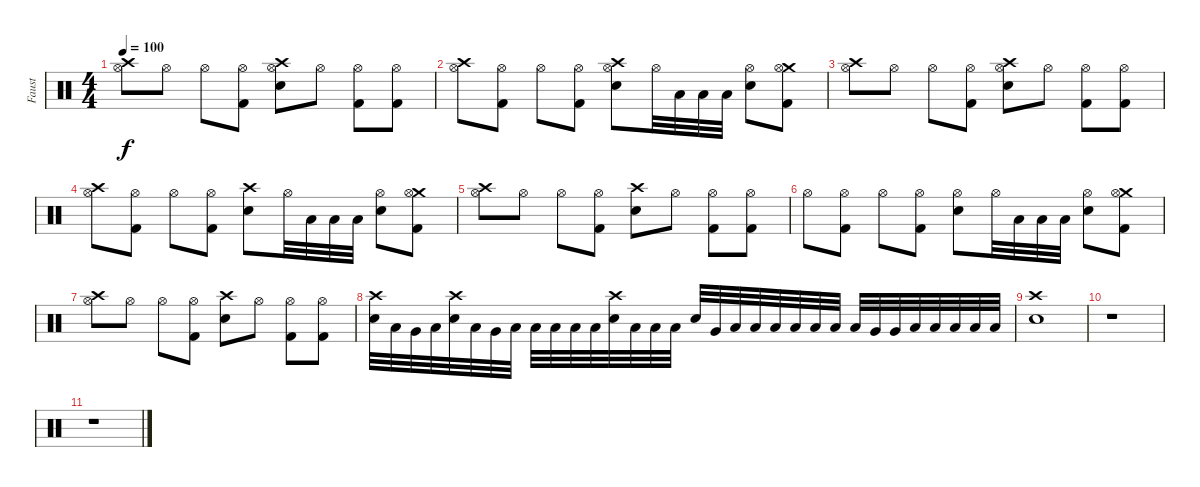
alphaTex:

\track ("Faust" "Faust") {instrument percussion}
\staff {score}
\articulation defaults
\ts (4 4)
\tempo 100
\clef neutral
\ks c
("Crash high (hit)" "Hi-Hat (open)").8{dy f} "Hi-Hat (open)".8 "Hi-Hat (open)".8 ("Hi-Hat (open)" "Kick (hit) 2").8 ("Crash high (hit)" "Snare (hit) 2" "Hi-Hat (open)").8 "Hi-Hat (open)".8 ("Hi-Hat (open)" "Kick (hit) 2").8 ("Hi-Hat (open)" "Kick (hit) 2").8 |
("Crash high (hit)" "Hi-Hat (open)").8 ("Hi-Hat (open)" "Kick (hit) 2").8 "Hi-Hat (open)".8 ("Hi-Hat (open)" "Kick (hit) 2").8 ("Crash high (hit)" "Snare (hit) 2" "Hi-Hat (open)").8 "Hi-Hat (open)".32 "Low Tom (hit)".32 "Low Tom (hit)".32 "Low Tom (hit)".32 ("Snare (hit) 2" "Hi-Hat (open)").8 ("Crash medium (hit)" "Hi-Hat (open)" "Kick (hit) 2").8 |
("Crash high (hit)" "Hi-Hat (open)").8 "Hi-Hat (open)".8 "Hi-Hat (open)".8 ("Hi-Hat (open)" "Kick (hit) 2").8 ("Crash high (hit)" "Snare (hit) 2" "Hi-Hat (open)").8 "Hi-Hat (open)".8 ("Hi-Hat (open)" "Kick (hit) 2").8 ("Hi-Hat (open)" "Kick (hit) 2").8 |
("Crash high (hit)" "Hi-Hat (open)").8 ("Hi-Hat (open)" "Kick (hit) 2").8 "Hi-Hat (open)".8 ("Hi-Hat (open)" "Kick (hit) 2").8 ("Crash high (hit)" "Snare (hit) 2").8 "Hi-Hat (open)".32 "Low Tom (hit)".32 "Low Tom (hit)".32 "Low Tom (hit)".32 ("Snare (hit) 2" "Hi-Hat (open)").8 ("Crash medium (hit)" "Hi-Hat (open)" "Kick (hit) 2").8 |
("Crash high (hit)" "Hi-Hat (open)").8 "Hi-Hat (open)".8 "Hi-Hat (open)".8 ("Hi-Hat (open)" "Kick (hit) 2").8 ("Crash high (hit)" "Snare (hit) 2").8 "Hi-Hat (open)".8 ("Hi-Hat (open)" "Kick (hit) 2").8 ("Hi-Hat (open)" "Kick (hit) 2").8 |
"Hi-Hat (open)".8 ("Hi-Hat (open)" "Kick (hit) 2").8 "Hi-Hat (open)".8 ("Hi-Hat (open)" "Kick (hit) 2").8 ("Snare (hit) 2" "Hi-Hat (open)").8 "Hi-Hat (open)".32 "Low Tom (hit)".32 "Low Tom (hit)".32 "Low Tom (hit)".32 ("Snare (hit) 2" "Hi-Hat (open)").8 ("Crash medium (hit)" "Hi-Hat (open)" "Kick (hit) 2").8 |
("Crash high (hit)" "Hi-Hat (open)").8 "Hi-Hat (open)".8 "Hi-Hat (open)".8 ("Hi-Hat (open)" "Kick (hit) 2").8 ("Crash high (hit)" "Snare (hit) 2").8 "Hi-Hat (open)".8 ("Hi-Hat (open)" "Kick (hit) 2").8 ("Hi-Hat (open)" "Kick (hit) 2").8 |
("Crash high (hit)" "Snare (hit) 2").32 "Low Tom (hit)".32 "Very Low Tom (hit)".32 "Low Floor Tom (hit)".32 ("Crash high (hit)" "Snare (hit) 2").32 "Low Tom (hit)".32 "Very Low Tom (hit)".32 "Low Floor Tom (hit)".32 "Low Floor Tom (hit)".32 "Low Floor Tom (hit)".32 "Low Floor Tom (hit)".32 "Low Floor Tom (hit)".32 ("Crash high (hit)" "Snare (hit) 2").32 "Low Floor Tom (hit)".32 "Low Tom (hit)".32 "Low Tom (hit)".32 "Snare (hit) 2".32 "Very Low Tom (hit)".32 "Low Floor Tom (hit)".32 "Low Tom (hit)".32 "Low Floor Tom (hit)".32 "Low Floor Tom (hit)".32 "Low Floor Tom (hit)".32 "Low Floor Tom (hit)".32 "Low Tom (hit)".32 "Very Low Tom (hit)".32 "Very Low Tom (hit)".32 "Low Floor Tom (hit)".32 "Low Floor Tom (hit)".32 "Low Floor Tom (hit)".32 "Low Floor Tom (hit)".32 "Low Floor Tom (hit)".32 |
("Crash high (hit)" "Snare (hit) 2").1 |
r.1 |
r.1
